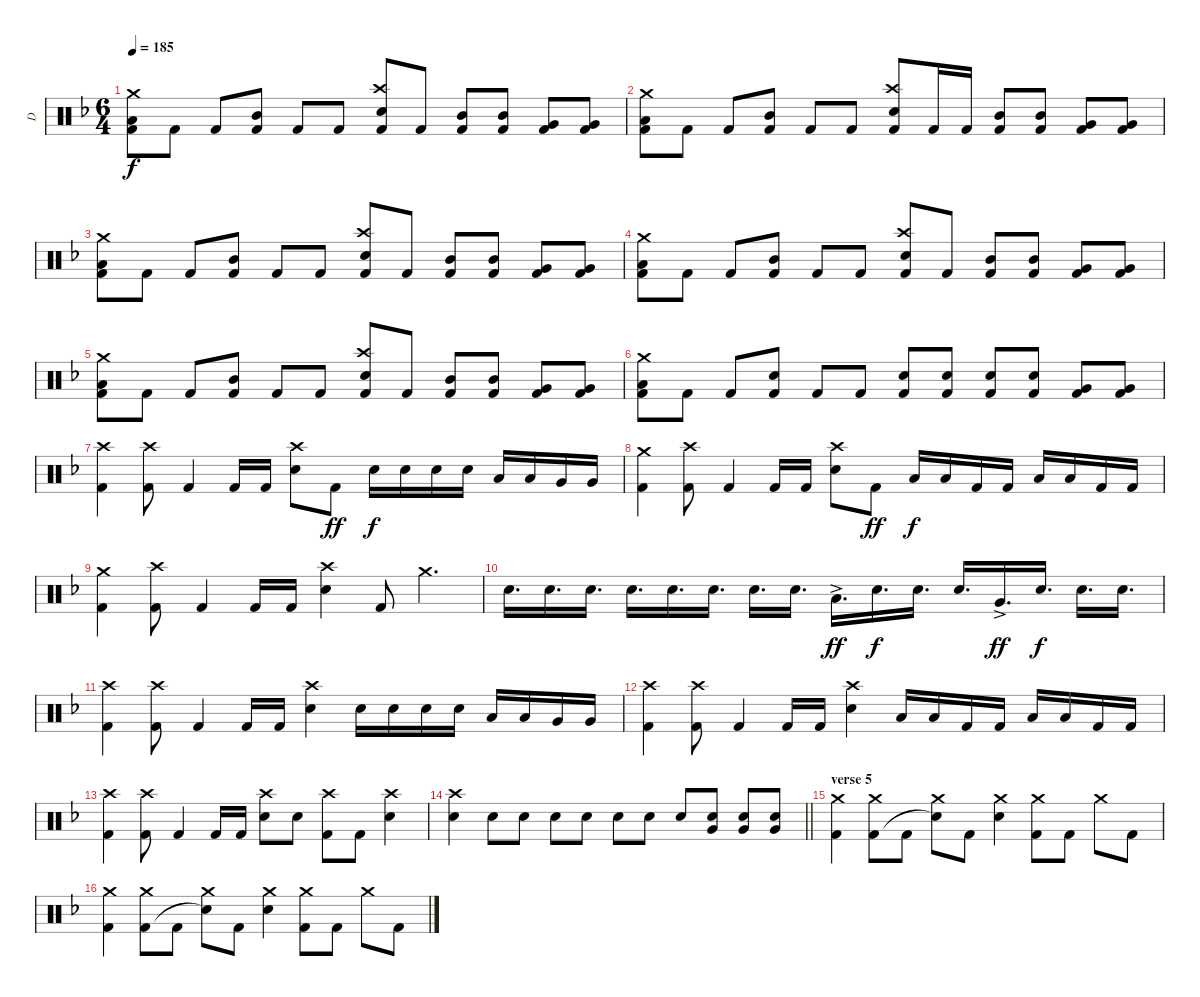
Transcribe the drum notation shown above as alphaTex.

\track ("D" "D") {instrument percussion}
\staff {score}
\articulation defaults
\ts (6 4)
\tempo 185
\clef neutral
\ks dminor
("Crash medium (hit)" "Low Tom (hit)" "Kick (hit) 2").8{dy f} "Kick (hit) 2".8 "Kick (hit) 2".8 ("Mid Tom (hit)" "Kick (hit) 2").8 "Kick (hit) 2".8 "Kick (hit) 2".8 ("Crash high (hit)" "Snare (hit) 2" "Kick (hit) 2").8 "Kick (hit) 2".8 ("Mid Tom (hit)" "Kick (hit) 2").8 ("Mid Tom (hit)" "Kick (hit) 2").8 ("Very Low Tom (hit)" "Kick (hit) 2").8 ("Very Low Tom (hit)" "Kick (hit) 2").8 |
("Crash medium (hit)" "Low Tom (hit)" "Kick (hit) 2").8 "Kick (hit) 2".8 "Kick (hit) 2".8 ("Mid Tom (hit)" "Kick (hit) 2").8 "Kick (hit) 2".8 "Kick (hit) 2".8 ("Crash high (hit)" "Snare (hit) 2" "Kick (hit) 2").8 "Kick (hit) 2".16 "Kick (hit) 2".16 ("Mid Tom (hit)" "Kick (hit) 2").8 ("Mid Tom (hit)" "Kick (hit) 2").8 ("Very Low Tom (hit)" "Kick (hit) 2").8 ("Very Low Tom (hit)" "Kick (hit) 2").8 |
("Crash medium (hit)" "Low Tom (hit)" "Kick (hit) 2").8 "Kick (hit) 2".8 "Kick (hit) 2".8 ("Mid Tom (hit)" "Kick (hit) 2").8 "Kick (hit) 2".8 "Kick (hit) 2".8 ("Crash high (hit)" "Snare (hit) 2" "Kick (hit) 2").8 "Kick (hit) 2".8 ("Mid Tom (hit)" "Kick (hit) 2").8 ("Mid Tom (hit)" "Kick (hit) 2").8 ("Very Low Tom (hit)" "Kick (hit) 2").8 ("Very Low Tom (hit)" "Kick (hit) 2").8 |
("Crash medium (hit)" "Low Tom (hit)" "Kick (hit) 2").8 "Kick (hit) 2".8 "Kick (hit) 2".8 ("Mid Tom (hit)" "Kick (hit) 2").8 "Kick (hit) 2".8 "Kick (hit) 2".8 ("Crash high (hit)" "Snare (hit) 2" "Kick (hit) 2").8 "Kick (hit) 2".8 ("Mid Tom (hit)" "Kick (hit) 2").8 ("Mid Tom (hit)" "Kick (hit) 2").8 ("Very Low Tom (hit)" "Kick (hit) 2").8 ("Very Low Tom (hit)" "Kick (hit) 2").8 |
("Crash medium (hit)" "Low Tom (hit)" "Kick (hit) 2").8 "Kick (hit) 2".8 "Kick (hit) 2".8 ("Mid Tom (hit)" "Kick (hit) 2").8 "Kick (hit) 2".8 "Kick (hit) 2".8 ("Crash high (hit)" "Snare (hit) 2" "Kick (hit) 2").8 "Kick (hit) 2".8 ("Mid Tom (hit)" "Kick (hit) 2").8 ("Mid Tom (hit)" "Kick (hit) 2").8 ("Very Low Tom (hit)" "Kick (hit) 2").8 ("Very Low Tom (hit)" "Kick (hit) 2").8 |
("Crash medium (hit)" "Low Tom (hit)" "Kick (hit) 2").8 "Kick (hit) 2".8 "Kick (hit) 2".8 ("Snare (hit) 2" "Kick (hit) 2").8 "Kick (hit) 2".8 "Kick (hit) 2".8 ("Snare (hit) 2" "Kick (hit) 2").8 ("Snare (hit) 2" "Kick (hit) 2").8 ("Snare (hit) 2" "Kick (hit) 2").8 ("Snare (hit) 2" "Kick (hit) 2").8 ("Very Low Tom (hit)" "Kick (hit) 2").8 ("Very Low Tom (hit)" "Kick (hit) 2").8 |
("Crash high (hit)" "Kick (hit) 2").4 ("Crash high (hit)" "Kick (hit) 2").8 "Kick (hit) 2".4 "Kick (hit) 2".16 "Kick (hit) 2".16 ("Crash high (hit)" "Snare (hit) 2").8 "Kick (hit) 2".8{dy ff} "Snare (hit) 2".16{dy f} "Snare (hit) 2".16 "Snare (hit) 2".16 "Snare (hit) 2".16 "Low Tom (hit)".16 "Low Tom (hit)".16 "Very Low Tom (hit)".16 "Very Low Tom (hit)".16 |
("Crash medium (hit)" "Kick (hit) 2").4 ("Crash high (hit)" "Kick (hit) 2").8 "Kick (hit) 2".4 "Kick (hit) 2".16 "Kick (hit) 2".16 ("Crash high (hit)" "Snare (hit) 2").8 "Kick (hit) 2".8{dy ff} "Low Floor Tom (hit)".16{dy f} "Low Floor Tom (hit)".16 "Kick (hit) 2".16 "Kick (hit) 2".16 "Low Floor Tom (hit)".16 "Low Floor Tom (hit)".16 "Kick (hit) 2".16 "Kick (hit) 2".16 |
("Crash medium (hit)" "Kick (hit) 2").4 ("Crash high (hit)" "Kick (hit) 2").8 "Kick (hit) 2".4 "Kick (hit) 2".16 "Kick (hit) 2".16 ("Crash high (hit)" "Snare (hit) 2").4 "Kick (hit) 2".8 "Crash medium (hit)".4{d} |
"Snare (hit) 2".16{d} "Snare (hit) 2".16{d} "Snare (hit) 2".16{d} "Snare (hit) 2".16{d} "Snare (hit) 2".16{d} "Snare (hit) 2".16{d} "Snare (hit) 2".16{d} "Snare (hit) 2".16{d} "Low Tom (hit)"{ac}.16{d dy ff} "Snare (hit) 2".16{d dy f} "Snare (hit) 2".16{d} "Snare (hit) 2".16{d} "Very Low Tom (hit)"{ac}.16{d dy ff} "Snare (hit) 2".16{d dy f} "Snare (hit) 2".16{d} "Snare (hit) 2".16{d} |
("Crash high (hit)" "Kick (hit) 2").4 ("Crash high (hit)" "Kick (hit) 2").8 "Kick (hit) 2".4 "Kick (hit) 2".16 "Kick (hit) 2".16 ("Crash high (hit)" "Snare (hit) 2").4 "Snare (hit) 2".16 "Snare (hit) 2".16 "Snare (hit) 2".16 "Snare (hit) 2".16 "Low Tom (hit)".16 "Low Tom (hit)".16 "Very Low Tom (hit)".16 "Very Low Tom (hit)".16 |
("Crash high (hit)" "Kick (hit) 2").4 ("Crash high (hit)" "Kick (hit) 2").8 "Kick (hit) 2".4 "Kick (hit) 2".16 "Kick (hit) 2".16 ("Crash high (hit)" "Snare (hit) 2").4 "Low Floor Tom (hit)".16 "Low Floor Tom (hit)".16 "Kick (hit) 2".16 "Kick (hit) 2".16 "Low Floor Tom (hit)".16 "Low Floor Tom (hit)".16 "Kick (hit) 2".16 "Kick (hit) 2".16 |
("Crash high (hit)" "Kick (hit) 2").4 ("Crash high (hit)" "Kick (hit) 2").8 "Kick (hit) 2".4 "Kick (hit) 2".16 "Kick (hit) 2".16 ("Crash high (hit)" "Snare (hit) 2").8 "Snare (hit) 2".8 ("Crash high (hit)" "Kick (hit) 2").8 "Kick (hit) 2".8 ("Crash high (hit)" "Snare (hit) 2").4 |
\barLineRight lightlight
("Crash high (hit)" "Snare (hit) 2").4 "Snare (hit) 2".8 "Snare (hit) 2".8 "Snare (hit) 2".8 "Snare (hit) 2".8 "Snare (hit) 2".8 "Snare (hit) 2".8 "Snare (hit) 2".8 ("Very Low Tom (hit)" "Snare (hit) 2").8 ("Very Low Tom (hit)" "Snare (hit) 2").8 ("Very Low Tom (hit)" "Snare (hit) 2").8 |
\section ("" "verse 5")
("Crash medium (hit)" "Kick (hit) 2").4 ("Crash medium (hit)" "Kick (hit) 2").8 "Kick (hit) 2".8 ("Crash medium (hit)" "Snare (hit)"{t}).8 "Kick (hit) 2".8 ("Crash medium (hit)" "Snare (hit) 2").4 ("Crash medium (hit)" "Kick (hit) 2").8 "Kick (hit) 2".8 "Crash medium (hit)".8 "Kick (hit) 2".8 |
("Crash medium (hit)" "Kick (hit) 2").4 ("Crash medium (hit)" "Kick (hit) 2").8 "Kick (hit) 2".8 ("Crash medium (hit)" "Snare (hit)"{t}).8 "Kick (hit) 2".8 ("Crash medium (hit)" "Snare (hit) 2").4 ("Crash medium (hit)" "Kick (hit) 2").8 "Kick (hit) 2".8 "Crash medium (hit)".8 "Kick (hit) 2".8
